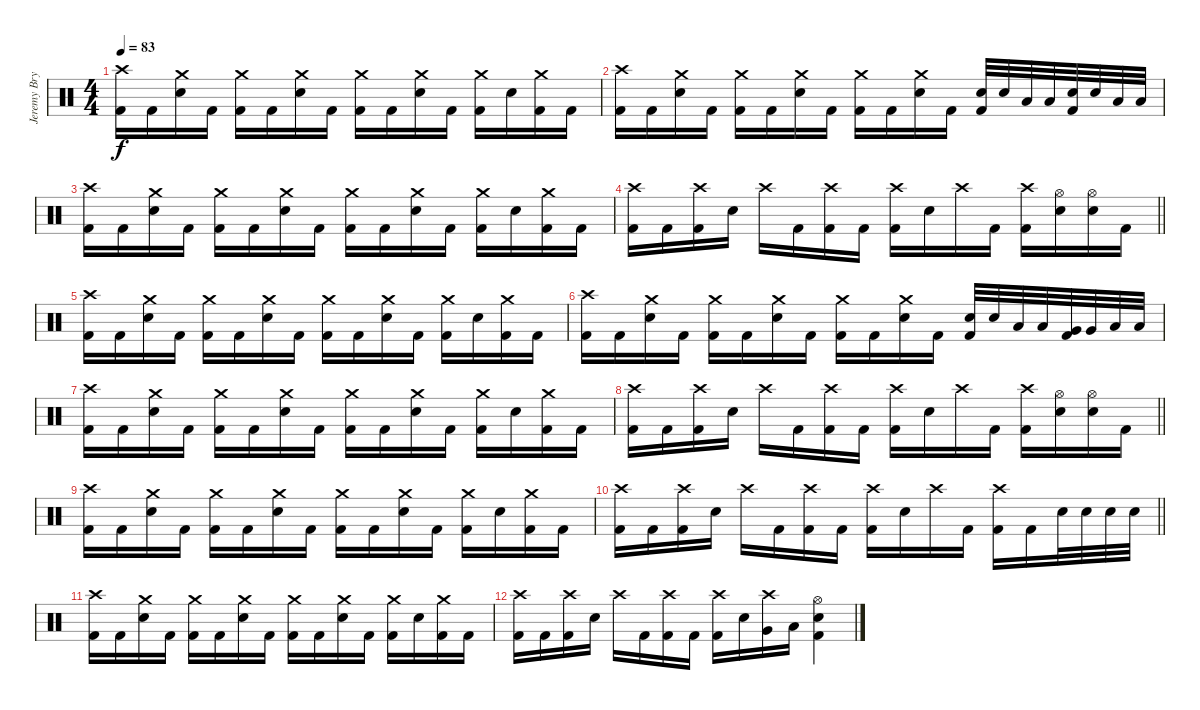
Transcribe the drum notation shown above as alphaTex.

\track ("Jeremy Bryan - Drums" "Jeremy Bry") {instrument percussion}
\staff {score}
\articulation defaults
\ts (4 4)
\tempo 83
\clef neutral
\ks c
("Crash high (hit)" "Kick (hit) 2").16{dy f} "Kick (hit) 2".16 ("Crash medium (hit)" "Electric Snare (hit)").16 "Kick (hit) 2".16 ("Crash medium (hit)" "Kick (hit) 2").16 "Kick (hit) 2".16 ("Crash medium (hit)" "Electric Snare (hit)").16 "Kick (hit) 2".16 ("Crash medium (hit)" "Kick (hit) 2").16 "Kick (hit) 2".16 ("Crash medium (hit)" "Electric Snare (hit)").16 "Kick (hit) 2".16 ("Crash medium (hit)" "Kick (hit) 2").16 "Electric Snare (hit)".16 ("Crash medium (hit)" "Kick (hit) 2").16 "Kick (hit) 2".16 |
("Crash high (hit)" "Kick (hit) 2").16 "Kick (hit) 2".16 ("Crash medium (hit)" "Electric Snare (hit)").16 "Kick (hit) 2".16 ("Crash medium (hit)" "Kick (hit) 2").16 "Kick (hit) 2".16 ("Crash medium (hit)" "Electric Snare (hit)").16 "Kick (hit) 2".16 ("Crash medium (hit)" "Kick (hit) 2").16 "Kick (hit) 2".16 ("Crash medium (hit)" "Electric Snare (hit)").16 "Kick (hit) 2".16 ("Electric Snare (hit)" "Kick (hit) 2").32 "Electric Snare (hit)".32 "Low Tom (hit)".32 "Low Tom (hit)".32 ("Electric Snare (hit)" "Kick (hit) 2").32 "Electric Snare (hit)".32 "Low Tom (hit)".32 "Low Tom (hit)".32 |
("Crash high (hit)" "Kick (hit) 2").16 "Kick (hit) 2".16 ("Crash medium (hit)" "Electric Snare (hit)").16 "Kick (hit) 2".16 ("Crash medium (hit)" "Kick (hit) 2").16 "Kick (hit) 2".16 ("Crash medium (hit)" "Electric Snare (hit)").16 "Kick (hit) 2".16 ("Crash medium (hit)" "Kick (hit) 2").16 "Kick (hit) 2".16 ("Crash medium (hit)" "Electric Snare (hit)").16 "Kick (hit) 2".16 ("Crash medium (hit)" "Kick (hit) 2").16 "Electric Snare (hit)".16 ("Crash medium (hit)" "Kick (hit) 2").16 "Kick (hit) 2".16 |
\barLineRight lightlight
("Crash high (hit)" "Kick (hit) 2").16 "Kick (hit) 2".16 ("Crash high (hit)" "Kick (hit) 2").16 "Electric Snare (hit)".16 "Crash high (hit)".16 "Kick (hit) 2".16 ("Crash high (hit)" "Kick (hit) 2").16 "Kick (hit) 2".16 ("Crash high (hit)" "Kick (hit) 2").16 "Electric Snare (hit)".16 "Crash high (hit)".16 "Kick (hit) 2".16 ("Crash high (hit)" "Kick (hit) 2").16 ("Hi-Hat (open)" "Electric Snare (hit)").16 ("Hi-Hat (open)" "Electric Snare (hit)").16 "Kick (hit) 2".16 |
("Crash high (hit)" "Kick (hit) 2").16 "Kick (hit) 2".16 ("Crash medium (hit)" "Electric Snare (hit)").16 "Kick (hit) 2".16 ("Crash medium (hit)" "Kick (hit) 2").16 "Kick (hit) 2".16 ("Crash medium (hit)" "Electric Snare (hit)").16 "Kick (hit) 2".16 ("Crash medium (hit)" "Kick (hit) 2").16 "Kick (hit) 2".16 ("Crash medium (hit)" "Electric Snare (hit)").16 "Kick (hit) 2".16 ("Crash medium (hit)" "Kick (hit) 2").16 "Electric Snare (hit)".16 ("Crash medium (hit)" "Kick (hit) 2").16 "Kick (hit) 2".16 |
("Crash high (hit)" "Kick (hit) 2").16 "Kick (hit) 2".16 ("Crash medium (hit)" "Electric Snare (hit)").16 "Kick (hit) 2".16 ("Crash medium (hit)" "Kick (hit) 2").16 "Kick (hit) 2".16 ("Crash medium (hit)" "Electric Snare (hit)").16 "Kick (hit) 2".16 ("Crash medium (hit)" "Kick (hit) 2").16 "Kick (hit) 2".16 ("Crash medium (hit)" "Electric Snare (hit)").16 "Kick (hit) 2".16 ("Electric Snare (hit)" "Kick (hit) 2").32 "Electric Snare (hit)".32 "Low Tom (hit)".32 "Low Tom (hit)".32 ("Very Low Tom (hit)" "Kick (hit) 2").32 "Very Low Tom (hit)".32 "Low Floor Tom (hit)".32 "Low Floor Tom (hit)".32 |
("Crash high (hit)" "Kick (hit) 2").16 "Kick (hit) 2".16 ("Crash medium (hit)" "Electric Snare (hit)").16 "Kick (hit) 2".16 ("Crash medium (hit)" "Kick (hit) 2").16 "Kick (hit) 2".16 ("Crash medium (hit)" "Electric Snare (hit)").16 "Kick (hit) 2".16 ("Crash medium (hit)" "Kick (hit) 2").16 "Kick (hit) 2".16 ("Crash medium (hit)" "Electric Snare (hit)").16 "Kick (hit) 2".16 ("Crash medium (hit)" "Kick (hit) 2").16 "Electric Snare (hit)".16 ("Crash medium (hit)" "Kick (hit) 2").16 "Kick (hit) 2".16 |
\barLineRight lightlight
("Crash high (hit)" "Kick (hit) 2").16 "Kick (hit) 2".16 ("Crash high (hit)" "Kick (hit) 2").16 "Electric Snare (hit)".16 "Crash high (hit)".16 "Kick (hit) 2".16 ("Crash high (hit)" "Kick (hit) 2").16 "Kick (hit) 2".16 ("Crash high (hit)" "Kick (hit) 2").16 "Electric Snare (hit)".16 "Crash high (hit)".16 "Kick (hit) 2".16 ("Crash high (hit)" "Kick (hit) 2").16 ("Hi-Hat (open)" "Electric Snare (hit)").16 ("Hi-Hat (open)" "Electric Snare (hit)").16 "Kick (hit) 2".16 |
("Crash high (hit)" "Kick (hit) 2").16 "Kick (hit) 2".16 ("Crash medium (hit)" "Electric Snare (hit)").16 "Kick (hit) 2".16 ("Crash medium (hit)" "Kick (hit) 2").16 "Kick (hit) 2".16 ("Crash medium (hit)" "Electric Snare (hit)").16 "Kick (hit) 2".16 ("Crash medium (hit)" "Kick (hit) 2").16 "Kick (hit) 2".16 ("Crash medium (hit)" "Electric Snare (hit)").16 "Kick (hit) 2".16 ("Crash medium (hit)" "Kick (hit) 2").16 "Electric Snare (hit)".16 ("Crash medium (hit)" "Kick (hit) 2").16 "Kick (hit) 2".16 |
\barLineRight lightlight
("Crash high (hit)" "Kick (hit) 2").16 "Kick (hit) 2".16 ("Crash high (hit)" "Kick (hit) 2").16 "Electric Snare (hit)".16 "Crash high (hit)".16 "Kick (hit) 2".16 ("Crash high (hit)" "Kick (hit) 2").16 "Kick (hit) 2".16 ("Crash high (hit)" "Kick (hit) 2").16 "Electric Snare (hit)".16 "Crash high (hit)".16 "Kick (hit) 2".16 ("Crash high (hit)" "Kick (hit) 2").16 "Kick (hit) 2".16 "Electric Snare (hit)".32 "Electric Snare (hit)".32 "Electric Snare (hit)".32 "Electric Snare (hit)".32 |
("Crash high (hit)" "Kick (hit) 2").16 "Kick (hit) 2".16 ("Crash medium (hit)" "Electric Snare (hit)").16 "Kick (hit) 2".16 ("Crash medium (hit)" "Kick (hit) 2").16 "Kick (hit) 2".16 ("Crash medium (hit)" "Electric Snare (hit)").16 "Kick (hit) 2".16 ("Crash medium (hit)" "Kick (hit) 2").16 "Kick (hit) 2".16 ("Crash medium (hit)" "Electric Snare (hit)").16 "Kick (hit) 2".16 ("Crash medium (hit)" "Kick (hit) 2").16 "Electric Snare (hit)".16 ("Crash medium (hit)" "Kick (hit) 2").16 "Kick (hit) 2".16 |
("Crash high (hit)" "Kick (hit) 2").16 "Kick (hit) 2".16 ("Crash high (hit)" "Kick (hit) 2").16 "Electric Snare (hit)".16 "Crash high (hit)".16 "Kick (hit) 2".16 ("Crash high (hit)" "Kick (hit) 2").16 "Kick (hit) 2".16 ("Crash high (hit)" "Kick (hit) 2").16 "Electric Snare (hit)".16 ("Crash high (hit)" "Very Low Tom (hit)").16 "Low Floor Tom (hit)".16 ("Hi-Hat (open)" "Electric Snare (hit)" "Kick (hit) 2").4
